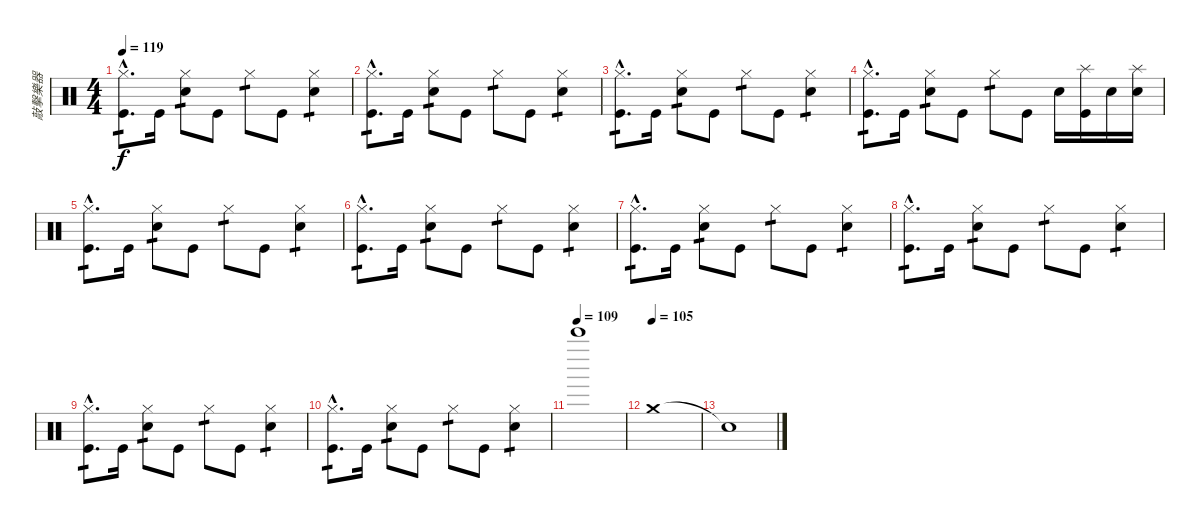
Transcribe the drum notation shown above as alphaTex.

\track ("敲擊樂器" "敲擊樂器") {instrument percussion}
\staff {score}
\articulation defaults
\ts (4 4)
\tempo 119
\clef neutral
\ks c
("Hi-Hat (closed)"{hac} "Kick (hit)"{hac}).8{d tp 1 dy f} "Kick (hit)".16 ("Hi-Hat (closed)" "Electric Snare (hit)").8{tp 1} "Kick (hit)".8 "Hi-Hat (closed)".8{tp 1} "Kick (hit)".8 ("Hi-Hat (closed)" "Electric Snare (hit)").4{tp 1} |
("Hi-Hat (closed)"{hac} "Kick (hit)"{hac}).8{d tp 1} "Kick (hit)".16 ("Hi-Hat (closed)" "Electric Snare (hit)").8{tp 1} "Kick (hit)".8 "Hi-Hat (closed)".8{tp 1} "Kick (hit)".8 ("Hi-Hat (closed)" "Electric Snare (hit)").4{tp 1} |
("Hi-Hat (closed)"{hac} "Kick (hit)"{hac}).8{d tp 1} "Kick (hit)".16 ("Hi-Hat (closed)" "Electric Snare (hit)").8{tp 1} "Kick (hit)".8 "Hi-Hat (closed)".8{tp 1} "Kick (hit)".8 ("Hi-Hat (closed)" "Electric Snare (hit)").4{tp 1} |
("Hi-Hat (closed)"{hac} "Kick (hit)"{hac}).8{d tp 1} "Kick (hit)".16 ("Hi-Hat (closed)" "Electric Snare (hit)").8{tp 1} "Kick (hit)".8 "Hi-Hat (closed)".8{tp 1} "Kick (hit)".8 "Electric Snare (hit)".16 ("Splash (hit)" "Kick (hit)").16 "Electric Snare (hit)".16 ("Splash (hit)" "Electric Snare (hit)").16 |
("Hi-Hat (closed)"{hac} "Kick (hit)"{hac}).8{d tp 1} "Kick (hit)".16 ("Hi-Hat (closed)" "Electric Snare (hit)").8{tp 1} "Kick (hit)".8 "Hi-Hat (closed)".8{tp 1} "Kick (hit)".8 ("Hi-Hat (closed)" "Electric Snare (hit)").4{tp 1} |
("Hi-Hat (closed)"{hac} "Kick (hit)"{hac}).8{d tp 1} "Kick (hit)".16 ("Hi-Hat (closed)" "Electric Snare (hit)").8{tp 1} "Kick (hit)".8 "Hi-Hat (closed)".8{tp 1} "Kick (hit)".8 ("Hi-Hat (closed)" "Electric Snare (hit)").4{tp 1} |
("Hi-Hat (closed)"{hac} "Kick (hit)"{hac}).8{d tp 1} "Kick (hit)".16 ("Hi-Hat (closed)" "Electric Snare (hit)").8{tp 1} "Kick (hit)".8 "Hi-Hat (closed)".8{tp 1} "Kick (hit)".8 ("Hi-Hat (closed)" "Electric Snare (hit)").4{tp 1} |
("Hi-Hat (closed)"{hac} "Kick (hit)"{hac}).8{d tp 1} "Kick (hit)".16 ("Hi-Hat (closed)" "Electric Snare (hit)").8{tp 1} "Kick (hit)".8 "Hi-Hat (closed)".8{tp 1} "Kick (hit)".8 ("Hi-Hat (closed)" "Electric Snare (hit)").4{tp 1} |
("Hi-Hat (closed)"{hac} "Kick (hit)"{hac}).8{d tp 1} "Kick (hit)".16 ("Hi-Hat (closed)" "Electric Snare (hit)").8{tp 1} "Kick (hit)".8 "Hi-Hat (closed)".8{tp 1} "Kick (hit)".8 ("Hi-Hat (closed)" "Electric Snare (hit)").4{tp 1} |
("Hi-Hat (closed)"{hac} "Kick (hit)"{hac}).8{d tp 1} "Kick (hit)".16 ("Hi-Hat (closed)" "Electric Snare (hit)").8{tp 1} "Kick (hit)".8 "Hi-Hat (closed)".8{tp 1} "Kick (hit)".8 ("Hi-Hat (closed)" "Electric Snare (hit)").4{tp 1} |
\tempo (109)
"Bell Tree (hit)".1 |
\tempo (105)
"Crash medium (hit)".1 |
"Snare (hit)"{t}.1
